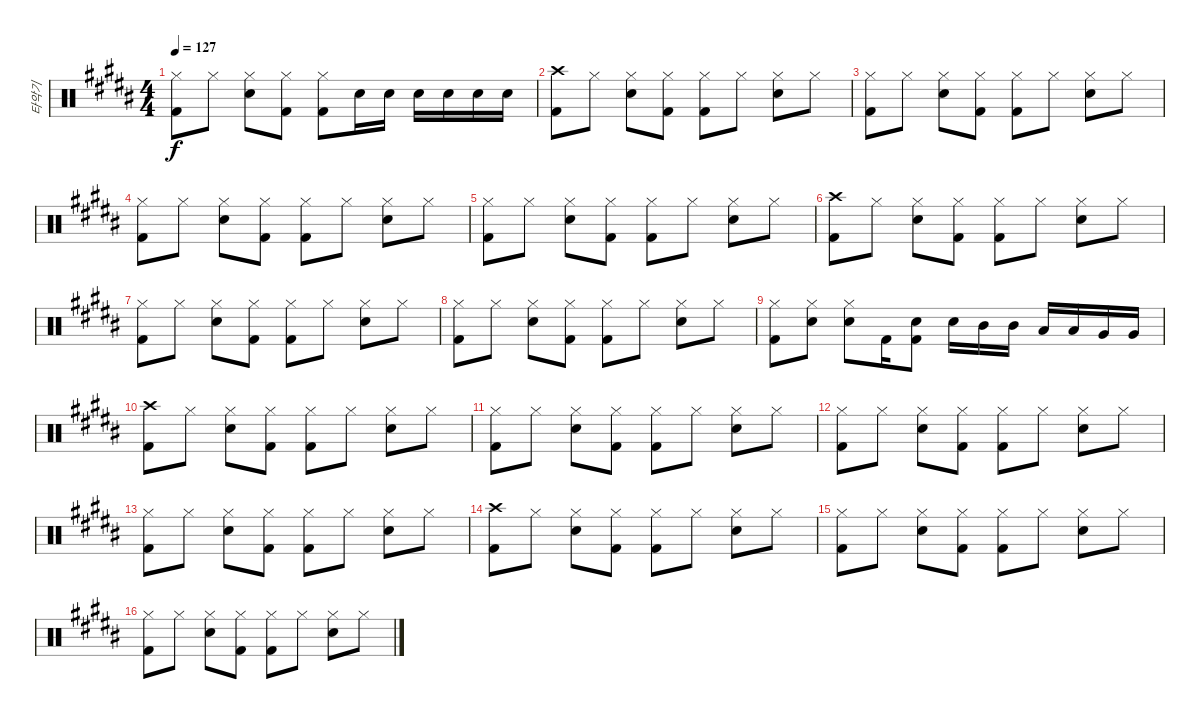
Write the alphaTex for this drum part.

\track ("타악기" "타악기") {instrument percussion}
\staff {score}
\articulation defaults
\ts (4 4)
\tempo 127
\clef neutral
\ks b
("Hi-Hat (closed)" "Kick (hit) 2").8{dy f} "Hi-Hat (closed)".8 ("Hi-Hat (closed)" "Electric Snare (hit)").8 ("Hi-Hat (closed)" "Kick (hit) 2").8 ("Hi-Hat (closed)" "Kick (hit) 2").8 "Electric Snare (hit)".16 "Electric Snare (hit)".16 "Electric Snare (hit)".16 "Electric Snare (hit)".16 "Electric Snare (hit)".16 "Electric Snare (hit)".16 |
("Crash high (hit)" "Kick (hit) 2").8 "Hi-Hat (closed)".8 ("Hi-Hat (closed)" "Electric Snare (hit)").8 ("Hi-Hat (closed)" "Kick (hit) 2").8 ("Hi-Hat (closed)" "Kick (hit) 2").8 "Hi-Hat (closed)".8 ("Hi-Hat (closed)" "Electric Snare (hit)").8 "Hi-Hat (closed)".8 |
("Hi-Hat (closed)" "Kick (hit) 2").8 "Hi-Hat (closed)".8 ("Hi-Hat (closed)" "Electric Snare (hit)").8 ("Hi-Hat (closed)" "Kick (hit) 2").8 ("Hi-Hat (closed)" "Kick (hit) 2").8 "Hi-Hat (closed)".8 ("Hi-Hat (closed)" "Electric Snare (hit)").8 "Hi-Hat (closed)".8 |
("Hi-Hat (closed)" "Kick (hit) 2").8 "Hi-Hat (closed)".8 ("Hi-Hat (closed)" "Electric Snare (hit)").8 ("Hi-Hat (closed)" "Kick (hit) 2").8 ("Hi-Hat (closed)" "Kick (hit) 2").8 "Hi-Hat (closed)".8 ("Hi-Hat (closed)" "Electric Snare (hit)").8 "Hi-Hat (closed)".8 |
("Hi-Hat (closed)" "Kick (hit) 2").8 "Hi-Hat (closed)".8 ("Hi-Hat (closed)" "Electric Snare (hit)").8 ("Hi-Hat (closed)" "Kick (hit) 2").8 ("Hi-Hat (closed)" "Kick (hit) 2").8 "Hi-Hat (closed)".8 ("Hi-Hat (closed)" "Electric Snare (hit)").8 "Hi-Hat (closed)".8 |
("Crash high (hit)" "Kick (hit) 2").8 "Hi-Hat (closed)".8 ("Hi-Hat (closed)" "Electric Snare (hit)").8 ("Hi-Hat (closed)" "Kick (hit) 2").8 ("Hi-Hat (closed)" "Kick (hit) 2").8 "Hi-Hat (closed)".8 ("Hi-Hat (closed)" "Electric Snare (hit)").8 "Hi-Hat (closed)".8 |
("Hi-Hat (closed)" "Kick (hit) 2").8 "Hi-Hat (closed)".8 ("Hi-Hat (closed)" "Electric Snare (hit)").8 ("Hi-Hat (closed)" "Kick (hit) 2").8 ("Hi-Hat (closed)" "Kick (hit) 2").8 "Hi-Hat (closed)".8 ("Hi-Hat (closed)" "Electric Snare (hit)").8 "Hi-Hat (closed)".8 |
("Hi-Hat (closed)" "Kick (hit) 2").8 "Hi-Hat (closed)".8 ("Hi-Hat (closed)" "Electric Snare (hit)").8 ("Hi-Hat (closed)" "Kick (hit) 2").8 ("Hi-Hat (closed)" "Kick (hit) 2").8 "Hi-Hat (closed)".8 ("Hi-Hat (closed)" "Electric Snare (hit)").8 "Hi-Hat (closed)".8 |
("Hi-Hat (closed)" "Kick (hit) 2").8 ("Hi-Hat (closed)" "Electric Snare (hit)").8 ("Hi-Hat (closed)" "Electric Snare (hit)").8 "Kick (hit) 2".16 ("Electric Snare (hit)" "Kick (hit) 2").8 "Electric Snare (hit)".16 "Mid Tom (hit)".16 "Mid Tom (hit)".16 "Low Tom (hit)".16 "Low Tom (hit)".16 "Very Low Tom (hit)".16 "Very Low Tom (hit)".16 |
("Crash high (hit)" "Kick (hit) 2").8 "Hi-Hat (closed)".8 ("Hi-Hat (closed)" "Electric Snare (hit)").8 ("Hi-Hat (closed)" "Kick (hit) 2").8 ("Hi-Hat (closed)" "Kick (hit) 2").8 "Hi-Hat (closed)".8 ("Hi-Hat (closed)" "Electric Snare (hit)").8 "Hi-Hat (closed)".8 |
("Hi-Hat (closed)" "Kick (hit) 2").8 "Hi-Hat (closed)".8 ("Hi-Hat (closed)" "Electric Snare (hit)").8 ("Hi-Hat (closed)" "Kick (hit) 2").8 ("Hi-Hat (closed)" "Kick (hit) 2").8 "Hi-Hat (closed)".8 ("Hi-Hat (closed)" "Electric Snare (hit)").8 "Hi-Hat (closed)".8 |
("Hi-Hat (closed)" "Kick (hit) 2").8 "Hi-Hat (closed)".8 ("Hi-Hat (closed)" "Electric Snare (hit)").8 ("Hi-Hat (closed)" "Kick (hit) 2").8 ("Hi-Hat (closed)" "Kick (hit) 2").8 "Hi-Hat (closed)".8 ("Hi-Hat (closed)" "Electric Snare (hit)").8 "Hi-Hat (closed)".8 |
("Hi-Hat (closed)" "Kick (hit) 2").8 "Hi-Hat (closed)".8 ("Hi-Hat (closed)" "Electric Snare (hit)").8 ("Hi-Hat (closed)" "Kick (hit) 2").8 ("Hi-Hat (closed)" "Kick (hit) 2").8 "Hi-Hat (closed)".8 ("Hi-Hat (closed)" "Electric Snare (hit)").8 "Hi-Hat (closed)".8 |
("Crash high (hit)" "Kick (hit) 2").8 "Hi-Hat (closed)".8 ("Hi-Hat (closed)" "Electric Snare (hit)").8 ("Hi-Hat (closed)" "Kick (hit) 2").8 ("Hi-Hat (closed)" "Kick (hit) 2").8 "Hi-Hat (closed)".8 ("Hi-Hat (closed)" "Electric Snare (hit)").8 "Hi-Hat (closed)".8 |
("Hi-Hat (closed)" "Kick (hit) 2").8 "Hi-Hat (closed)".8 ("Hi-Hat (closed)" "Electric Snare (hit)").8 ("Hi-Hat (closed)" "Kick (hit) 2").8 ("Hi-Hat (closed)" "Kick (hit) 2").8 "Hi-Hat (closed)".8 ("Hi-Hat (closed)" "Electric Snare (hit)").8 "Hi-Hat (closed)".8 |
("Hi-Hat (closed)" "Kick (hit) 2").8 "Hi-Hat (closed)".8 ("Hi-Hat (closed)" "Electric Snare (hit)").8 ("Hi-Hat (closed)" "Kick (hit) 2").8 ("Hi-Hat (closed)" "Kick (hit) 2").8 "Hi-Hat (closed)".8 ("Hi-Hat (closed)" "Electric Snare (hit)").8 "Hi-Hat (closed)".8
